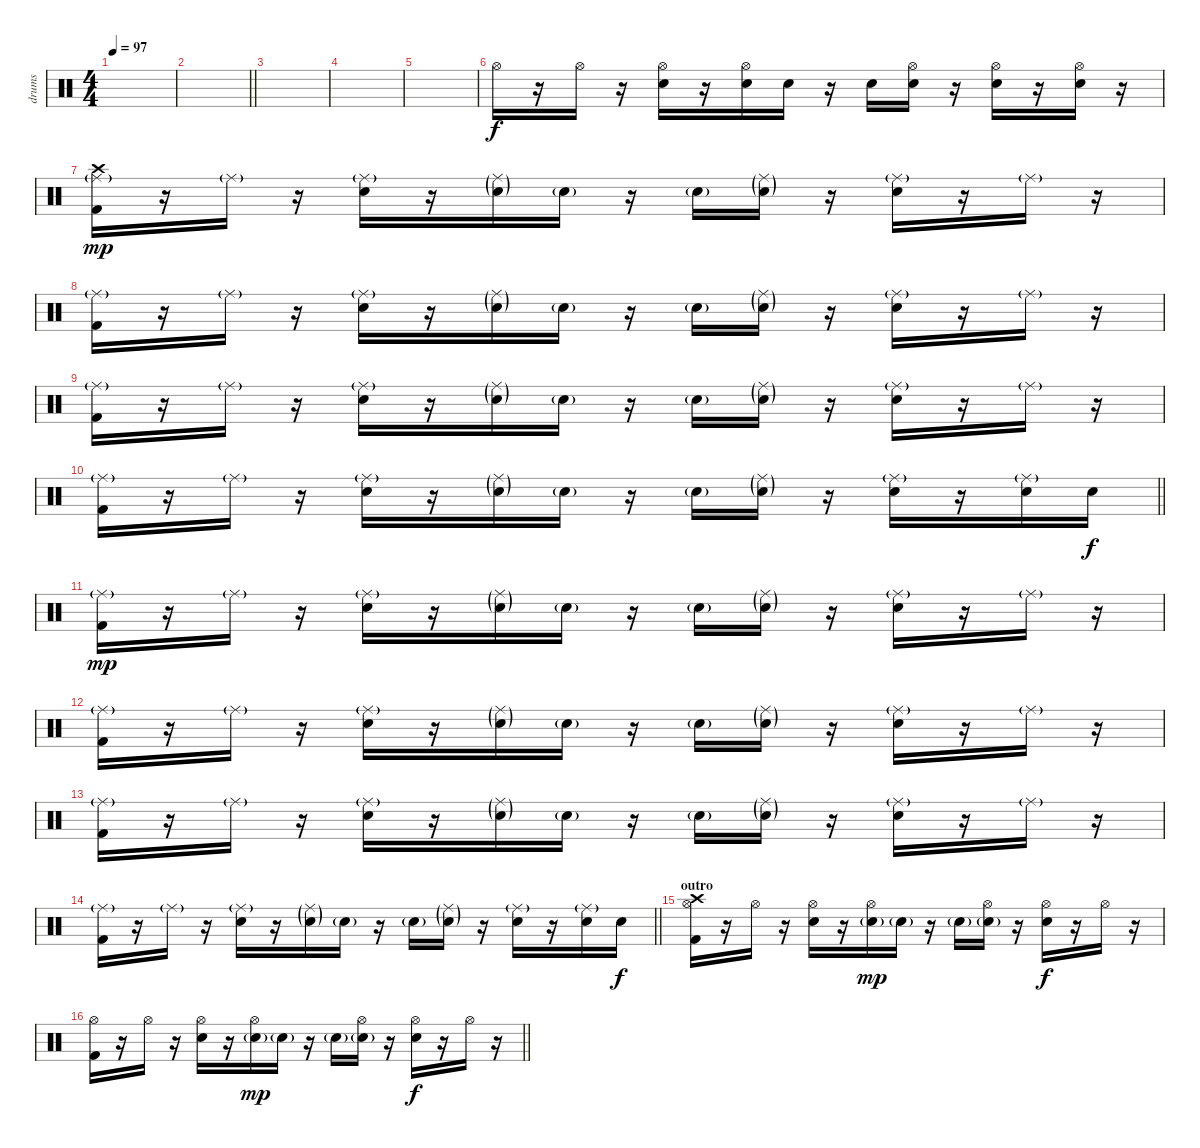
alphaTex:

\track ("drums" "drums") {instrument percussion}
\staff {score}
\articulation defaults
\ts (4 4)
\tempo 97
\clef neutral
\ks c
|
\barLineRight lightlight
|
|
|
|
"Hi-Hat (open)".16 r.16 "Hi-Hat (open)".16 r.16 ("Electric Snare (hit)" "Hi-Hat (open)").16 r.16 ("Electric Snare (hit)" "Hi-Hat (open)").16 "Electric Snare (hit)".16 r.16 "Electric Snare (hit)".16 ("Electric Snare (hit)" "Hi-Hat (open)").16 r.16 ("Electric Snare (hit)" "Hi-Hat (open)").16 r.16 ("Electric Snare (hit)" "Hi-Hat (open)").16 r.16 |
("Kick (hit) 2" "Ride (middle)"{g} "Crash high (hit)").16{dy mp} r.16 "Ride (middle)"{g}.16 r.16 ("Electric Snare (hit)" "Ride (middle)"{g}).16 r.16 ("Electric Snare (hit)"{g} "Ride (middle)"{g}).16 "Electric Snare (hit)"{g}.16 r.16 "Electric Snare (hit)"{g}.16 ("Electric Snare (hit)"{g} "Ride (middle)"{g}).16 r.16 ("Electric Snare (hit)" "Ride (middle)"{g}).16 r.16 "Ride (middle)"{g}.16 r.16 |
("Kick (hit) 2" "Ride (middle)"{g}).16 r.16 "Ride (middle)"{g}.16 r.16 ("Electric Snare (hit)" "Ride (middle)"{g}).16 r.16 ("Electric Snare (hit)"{g} "Ride (middle)"{g}).16 "Electric Snare (hit)"{g}.16 r.16 "Electric Snare (hit)"{g}.16 ("Electric Snare (hit)"{g} "Ride (middle)"{g}).16 r.16 ("Electric Snare (hit)" "Ride (middle)"{g}).16 r.16 "Ride (middle)"{g}.16 r.16 |
("Kick (hit) 2" "Ride (middle)"{g}).16 r.16 "Ride (middle)"{g}.16 r.16 ("Electric Snare (hit)" "Ride (middle)"{g}).16 r.16 ("Electric Snare (hit)"{g} "Ride (middle)"{g}).16 "Electric Snare (hit)"{g}.16 r.16 "Electric Snare (hit)"{g}.16 ("Electric Snare (hit)"{g} "Ride (middle)"{g}).16 r.16 ("Electric Snare (hit)" "Ride (middle)"{g}).16 r.16 "Ride (middle)"{g}.16 r.16 |
\barLineRight lightlight
("Kick (hit) 2" "Ride (middle)"{g}).16 r.16 "Ride (middle)"{g}.16 r.16 ("Electric Snare (hit)" "Ride (middle)"{g}).16 r.16 ("Electric Snare (hit)"{g} "Ride (middle)"{g}).16 "Electric Snare (hit)"{g}.16 r.16 "Electric Snare (hit)"{g}.16 ("Electric Snare (hit)"{g} "Ride (middle)"{g}).16 r.16 ("Electric Snare (hit)" "Ride (middle)"{g}).16 r.16 ("Electric Snare (hit)" "Ride (middle)"{g}).16 "Electric Snare (hit)".16{dy f} |
("Kick (hit) 2" "Ride (middle)"{g}).16{dy mp} r.16 "Ride (middle)"{g}.16 r.16 ("Electric Snare (hit)" "Ride (middle)"{g}).16 r.16 ("Electric Snare (hit)"{g} "Ride (middle)"{g}).16 "Electric Snare (hit)"{g}.16 r.16 "Electric Snare (hit)"{g}.16 ("Electric Snare (hit)"{g} "Ride (middle)"{g}).16 r.16 ("Electric Snare (hit)" "Ride (middle)"{g}).16 r.16 "Ride (middle)"{g}.16 r.16 |
("Kick (hit) 2" "Ride (middle)"{g}).16 r.16 "Ride (middle)"{g}.16 r.16 ("Electric Snare (hit)" "Ride (middle)"{g}).16 r.16 ("Electric Snare (hit)"{g} "Ride (middle)"{g}).16 "Electric Snare (hit)"{g}.16 r.16 "Electric Snare (hit)"{g}.16 ("Electric Snare (hit)"{g} "Ride (middle)"{g}).16 r.16 ("Electric Snare (hit)" "Ride (middle)"{g}).16 r.16 "Ride (middle)"{g}.16 r.16 |
("Kick (hit) 2" "Ride (middle)"{g}).16 r.16 "Ride (middle)"{g}.16 r.16 ("Electric Snare (hit)" "Ride (middle)"{g}).16 r.16 ("Electric Snare (hit)"{g} "Ride (middle)"{g}).16 "Electric Snare (hit)"{g}.16 r.16 "Electric Snare (hit)"{g}.16 ("Electric Snare (hit)"{g} "Ride (middle)"{g}).16 r.16 ("Electric Snare (hit)" "Ride (middle)"{g}).16 r.16 "Ride (middle)"{g}.16 r.16 |
\barLineRight lightlight
("Kick (hit) 2" "Ride (middle)"{g}).16 r.16 "Ride (middle)"{g}.16 r.16 ("Electric Snare (hit)" "Ride (middle)"{g}).16 r.16 ("Electric Snare (hit)"{g} "Ride (middle)"{g}).16 "Electric Snare (hit)"{g}.16 r.16 "Electric Snare (hit)"{g}.16 ("Electric Snare (hit)"{g} "Ride (middle)"{g}).16 r.16 ("Electric Snare (hit)" "Ride (middle)"{g}).16 r.16 ("Electric Snare (hit)" "Ride (middle)"{g}).16 "Electric Snare (hit)".16{dy f} |
\section ("" "outro")
("Kick (hit) 2" "Hi-Hat (open)" "Crash high (hit)").16 r.16 "Hi-Hat (open)".16 r.16 ("Electric Snare (hit)" "Hi-Hat (open)").16 r.16 ("Electric Snare (hit)"{g} "Hi-Hat (open)").16{dy mp} "Electric Snare (hit)"{g}.16 r.16 "Electric Snare (hit)"{g}.16 ("Electric Snare (hit)"{g} "Hi-Hat (open)").16 r.16 ("Electric Snare (hit)" "Hi-Hat (open)").16{dy f} r.16 "Hi-Hat (open)".16 r.16 |
\barLineRight lightlight
("Kick (hit) 2" "Hi-Hat (open)").16 r.16 "Hi-Hat (open)".16 r.16 ("Electric Snare (hit)" "Hi-Hat (open)").16 r.16 ("Electric Snare (hit)"{g} "Hi-Hat (open)").16{dy mp} "Electric Snare (hit)"{g}.16 r.16 "Electric Snare (hit)"{g}.16 ("Electric Snare (hit)"{g} "Hi-Hat (open)").16 r.16 ("Electric Snare (hit)" "Hi-Hat (open)").16{dy f} r.16 "Hi-Hat (open)".16 r.16
